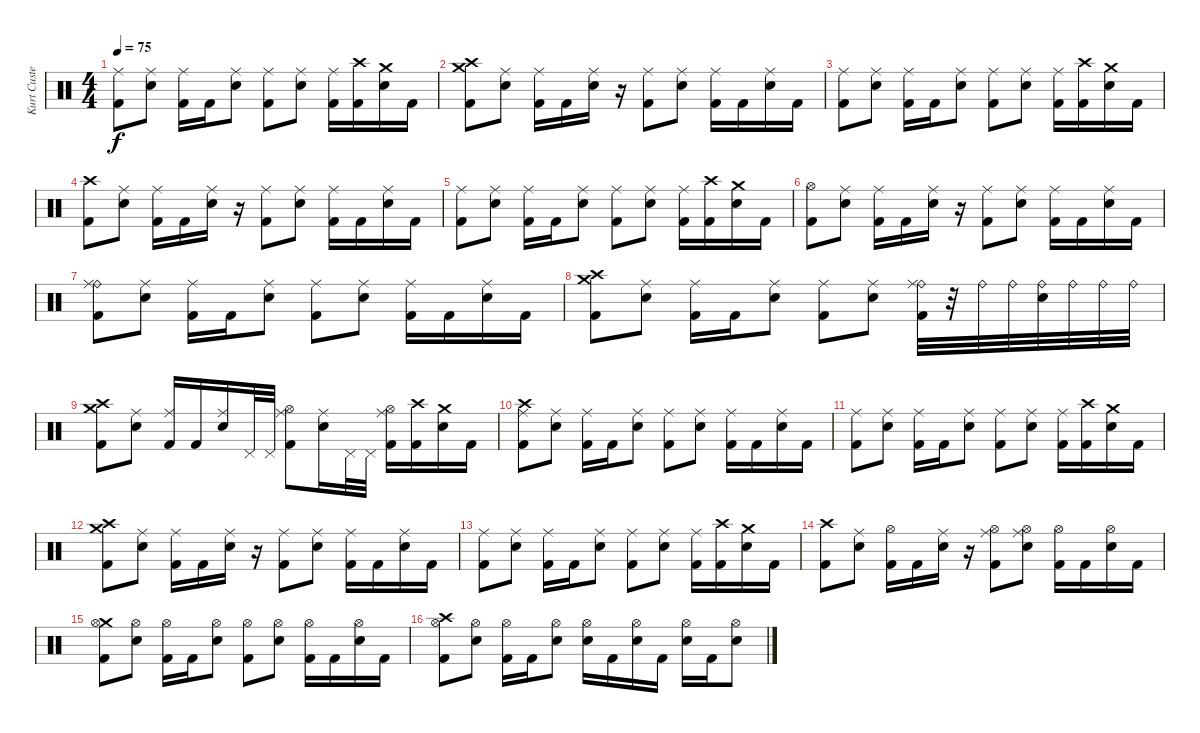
\track ("Kurt Custer - Drums and Percussion" "Kurt Custe") {instrument percussion}
\staff
\articulation defaults
\ts (4 4)
\tempo 75
\clef neutral
\ks c
("Ride (middle)" "Kick (hit) 2").8{dy f} ("Ride (middle)" "Snare (hit) 2").8 ("Ride (middle)" "Kick (hit) 2").16 "Kick (hit) 2".16 ("Ride (middle)" "Snare (hit) 2").8 ("Ride (middle)" "Kick (hit) 2").8 ("Ride (middle)" "Snare (hit) 2").8 ("Ride (middle)" "Kick (hit) 2").16 ("Crash high (hit)" "Kick (hit) 2").16 ("Crash medium (hit)" "Snare (hit) 2").16 "Kick (hit) 2".16 |
("Crash medium (hit)" "Crash high (hit)" "Kick (hit) 2").8 ("Ride (middle)" "Snare (hit) 2").8 ("Ride (middle)" "Kick (hit) 2").16 "Kick (hit) 2".16 ("Ride (middle)" "Snare (hit) 2").16 r.16 ("Ride (middle)" "Kick (hit) 2").8 ("Ride (middle)" "Snare (hit) 2").8 ("Ride (middle)" "Kick (hit) 2").16 "Kick (hit) 2".16 ("Ride (middle)" "Snare (hit) 2").16 "Kick (hit) 2".16 |
("Ride (middle)" "Kick (hit) 2").8 ("Ride (middle)" "Snare (hit) 2").8 ("Ride (middle)" "Kick (hit) 2").16 "Kick (hit) 2".16 ("Ride (middle)" "Snare (hit) 2").8 ("Ride (middle)" "Kick (hit) 2").8 ("Ride (middle)" "Snare (hit) 2").8 ("Ride (middle)" "Kick (hit) 2").16 ("Crash high (hit)" "Kick (hit) 2").16 ("Crash medium (hit)" "Snare (hit) 2").16 "Kick (hit) 2".16 |
("Crash high (hit)" "Kick (hit) 2").8 ("Ride (middle)" "Snare (hit) 2").8 ("Ride (middle)" "Kick (hit) 2").16 "Kick (hit) 2".16 ("Ride (middle)" "Snare (hit) 2").16 r.16 ("Ride (middle)" "Kick (hit) 2").8 ("Ride (middle)" "Snare (hit) 2").8 ("Ride (middle)" "Kick (hit) 2").16 "Kick (hit) 2".16 ("Ride (middle)" "Snare (hit) 2").16 "Kick (hit) 2".16 |
("Ride (middle)" "Kick (hit) 2").8 ("Ride (middle)" "Snare (hit) 2").8 ("Ride (middle)" "Kick (hit) 2").16 "Kick (hit) 2".16 ("Ride (middle)" "Snare (hit) 2").8 ("Ride (middle)" "Kick (hit) 2").8 ("Ride (middle)" "Snare (hit) 2").8 ("Ride (middle)" "Kick (hit) 2").16 ("Crash high (hit)" "Kick (hit) 2").16 ("Crash medium (hit)" "Snare (hit) 2").16 "Kick (hit) 2".16 |
("Hi-Hat (open)" "Kick (hit) 2").8 ("Ride (middle)" "Snare (hit) 2").8 ("Ride (middle)" "Kick (hit) 2").16 "Kick (hit) 2".16 ("Ride (middle)" "Snare (hit) 2").16 r.16 ("Ride (middle)" "Kick (hit) 2").8 ("Ride (middle)" "Snare (hit) 2").8 ("Ride (middle)" "Kick (hit) 2").16 "Kick (hit) 2".16 ("Ride (middle)" "Snare (hit) 2").16 "Kick (hit) 2".16 |
("Ride (bell)" "Ride (middle)" "Kick (hit) 2").8 ("Ride (middle)" "Snare (hit) 2").8 ("Ride (middle)" "Kick (hit) 2").16 "Kick (hit) 2".16 ("Ride (middle)" "Snare (hit) 2").8 ("Ride (middle)" "Kick (hit) 2").8 ("Ride (middle)" "Snare (hit) 2").8 ("Ride (middle)" "Kick (hit) 2").16 "Kick (hit) 2".16 ("Ride (middle)" "Snare (hit) 2").16 "Kick (hit) 2".16 |
("Crash medium (hit)" "Crash high (hit)" "Kick (hit) 2").8 ("Ride (middle)" "Snare (hit) 2").8 ("Ride (middle)" "Kick (hit) 2").16 "Kick (hit) 2".16 ("Ride (middle)" "Snare (hit) 2").8 ("Ride (middle)" "Kick (hit) 2").8 ("Ride (middle)" "Snare (hit) 2").8 ("Ride (bell)" "Ride (middle)" "Kick (hit) 2").32 r.32 "Ride (bell)".32 "Ride (bell)".32 ("Ride (bell)" "Snare (hit) 2").32 "Ride (bell)".32 "Ride (bell)".32 "Ride (bell)".32 |
("Crash medium (hit)" "Crash high (hit)" "Kick (hit) 2").8 ("Ride (middle)" "Snare (hit) 2").8 ("Ride (middle)" "Kick (hit) 2").16 "Kick (hit) 2".16 ("Ride (middle)" "Snare (hit) 2").16 "Pedal Hi-Hat (hit)".32 "Pedal Hi-Hat (hit)".32 ("Ride (middle)" "Hi-Hat (open)" "Kick (hit) 2").8 ("Ride (middle)" "Snare (hit) 2").16 "Pedal Hi-Hat (hit)".32 "Pedal Hi-Hat (hit)".32 ("Ride (middle)" "Hi-Hat (open)" "Kick (hit) 2").16 ("Crash high (hit)" "Kick (hit) 2").16 ("Crash medium (hit)" "Snare (hit) 2").16 "Kick (hit) 2".16 |
("Crash high (hit)" "Ride (middle)" "Kick (hit) 2").8 ("Ride (middle)" "Snare (hit) 2").8 ("Ride (middle)" "Kick (hit) 2").16 "Kick (hit) 2".16 ("Ride (middle)" "Snare (hit) 2").8 ("Ride (middle)" "Kick (hit) 2").8 ("Ride (middle)" "Snare (hit) 2").8 ("Ride (middle)" "Kick (hit) 2").16 "Kick (hit) 2".16 ("Ride (middle)" "Snare (hit) 2").16 "Kick (hit) 2".16 |
("Ride (middle)" "Kick (hit) 2").8 ("Ride (middle)" "Snare (hit) 2").8 ("Ride (middle)" "Kick (hit) 2").16 "Kick (hit) 2".16 ("Ride (middle)" "Snare (hit) 2").8 ("Ride (middle)" "Kick (hit) 2").8 ("Ride (middle)" "Snare (hit) 2").8 ("Ride (middle)" "Kick (hit) 2").16 ("Crash high (hit)" "Kick (hit) 2").16 ("Crash medium (hit)" "Snare (hit) 2").16 "Kick (hit) 2".16 |
("Crash medium (hit)" "Crash high (hit)" "Kick (hit) 2").8 ("Ride (middle)" "Snare (hit) 2").8 ("Ride (middle)" "Kick (hit) 2").16 "Kick (hit) 2".16 ("Ride (middle)" "Snare (hit) 2").16 r.16 ("Ride (middle)" "Kick (hit) 2").8 ("Ride (middle)" "Snare (hit) 2").8 ("Ride (middle)" "Kick (hit) 2").16 "Kick (hit) 2".16 ("Ride (middle)" "Snare (hit) 2").16 "Kick (hit) 2".16 |
("Ride (middle)" "Kick (hit) 2").8 ("Ride (middle)" "Snare (hit) 2").8 ("Ride (middle)" "Kick (hit) 2").16 "Kick (hit) 2".16 ("Ride (middle)" "Snare (hit) 2").8 ("Ride (middle)" "Kick (hit) 2").8 ("Ride (middle)" "Snare (hit) 2").8 ("Ride (middle)" "Kick (hit) 2").16 ("Crash high (hit)" "Kick (hit) 2").16 ("Crash medium (hit)" "Snare (hit) 2").16 "Kick (hit) 2".16 |
("Crash high (hit)" "Kick (hit) 2").8 ("Ride (middle)" "Snare (hit) 2").8 ("Hi-Hat (open)" "Kick (hit) 2").16 "Kick (hit) 2".16 ("Ride (middle)" "Snare (hit) 2").16 r.16 ("Ride (middle)" "Hi-Hat (open)" "Kick (hit) 2").8 ("Ride (middle)" "Snare (hit) 2" "Hi-Hat (open)").8 ("Hi-Hat (open)" "Kick (hit) 2").16 "Kick (hit) 2".16 ("Snare (hit) 2" "Hi-Hat (open)").16 "Kick (hit) 2".16 |
("Crash medium (hit)" "Hi-Hat (open)" "Kick (hit) 2").8 ("Snare (hit) 2" "Hi-Hat (open)").8 ("Hi-Hat (open)" "Kick (hit) 2").16 "Kick (hit) 2".16 ("Snare (hit) 2" "Hi-Hat (open)").8 ("Hi-Hat (open)" "Kick (hit) 2").8 ("Snare (hit) 2" "Hi-Hat (open)").8 ("Hi-Hat (open)" "Kick (hit) 2").16 "Kick (hit) 2".16 ("Snare (hit) 2" "Hi-Hat (open)").16 "Kick (hit) 2".16 |
("Crash high (hit)" "Hi-Hat (open)" "Kick (hit) 2").8 ("Snare (hit) 2" "Hi-Hat (open)").8 ("Hi-Hat (open)" "Kick (hit) 2").16 "Kick (hit) 2".16 ("Snare (hit) 2" "Hi-Hat (open)").8 ("Snare (hit) 2" "Hi-Hat (open)").16 "Kick (hit) 2".16 ("Snare (hit) 2" "Hi-Hat (open)").16 "Kick (hit) 2".16 ("Snare (hit) 2" "Hi-Hat (open)").16 "Kick (hit) 2".16 ("Snare (hit) 2" "Hi-Hat (open)").8
